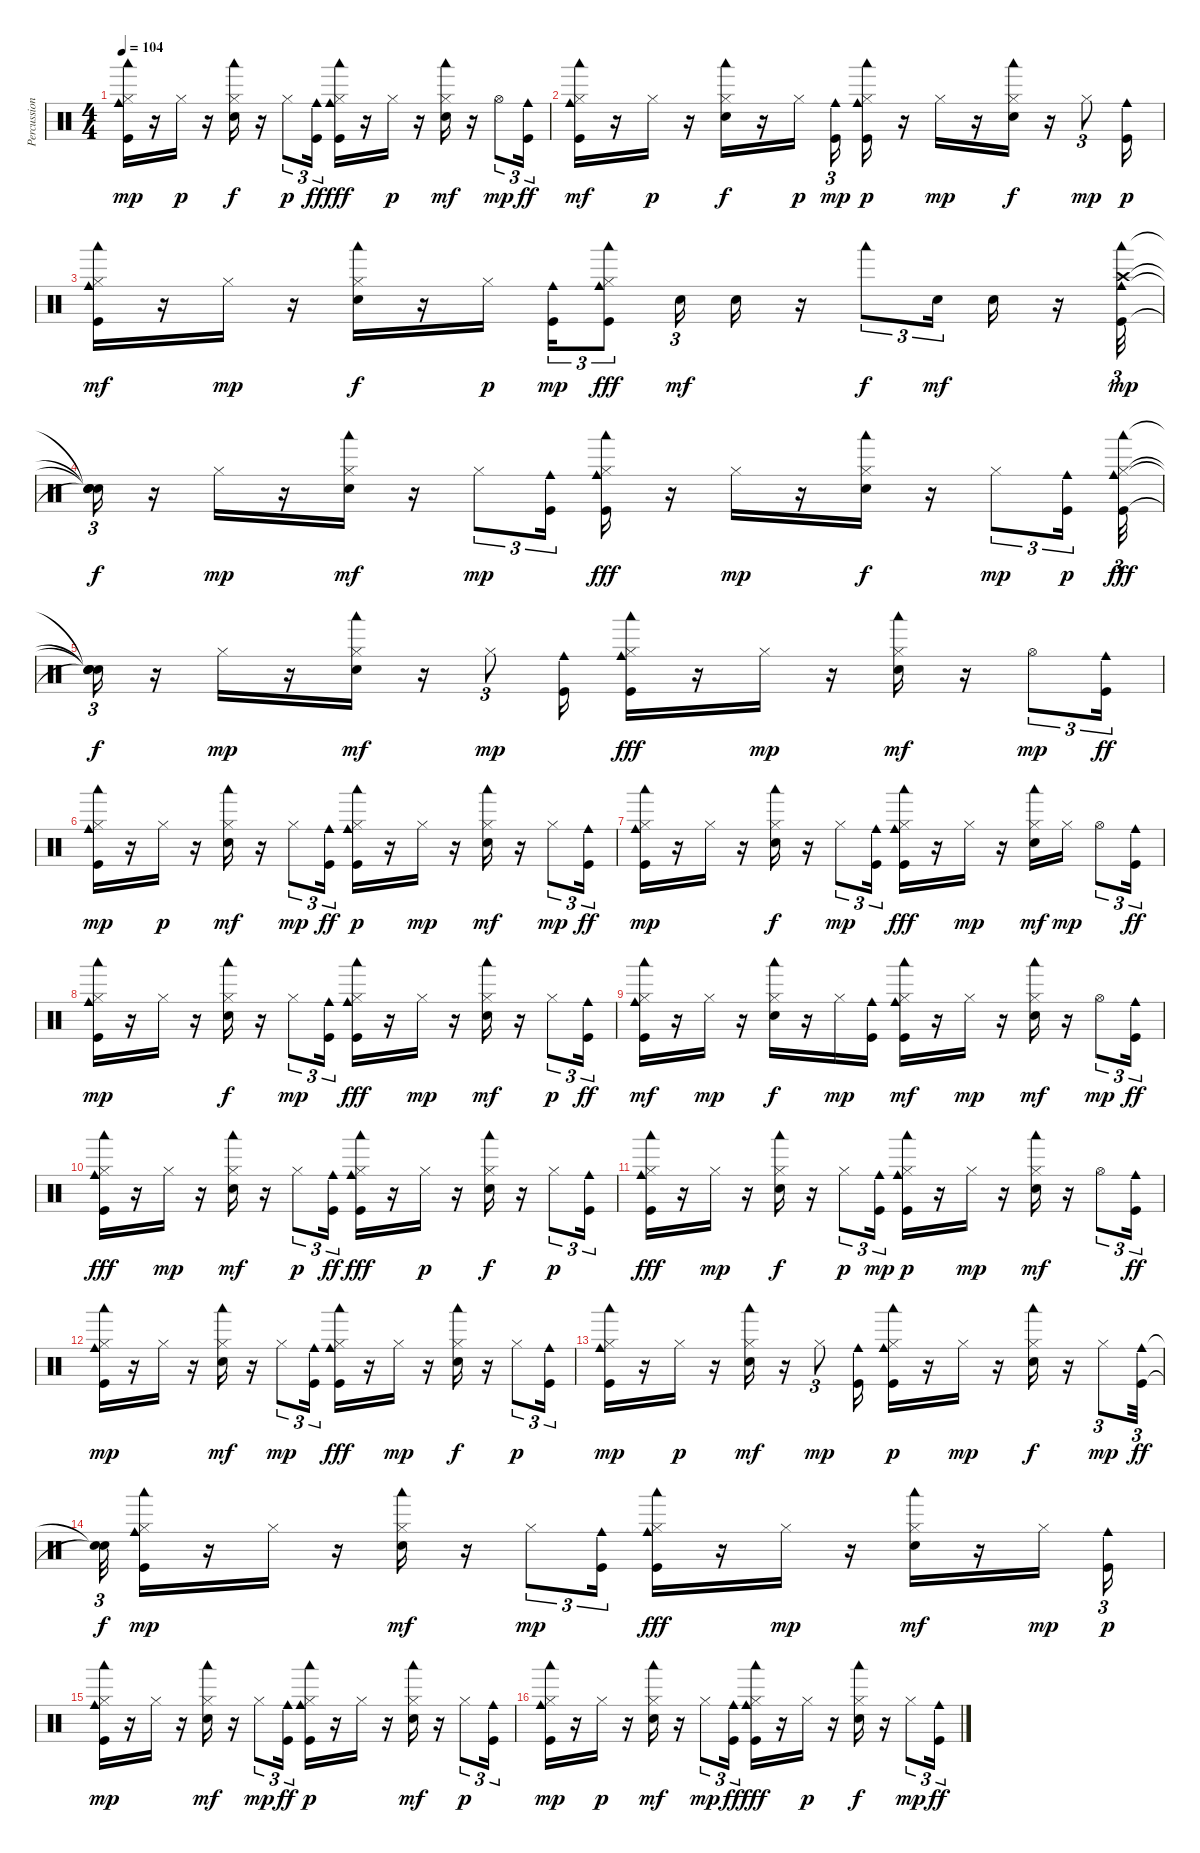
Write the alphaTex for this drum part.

\track ("Percussions (drums + hihats)" "Percussion") {instrument percussion}
\staff {score}
\articulation defaults
\ts (4 4)
\tempo 104
\clef neutral
\ks c
("Hi-Hat (closed)" "Woodblock low (hit)" "Kick (hit)" "Cowbell medium (hit)").16{dy mp} r.16 "Hi-Hat (closed)".16{dy p} r.16 ("Woodblock low (hit)" "Hi-Hat (closed)" "Electric Snare (hit)").16{dy f} r.16 "Hi-Hat (closed)".8{tu (3 2) dy p} ("Cowbell medium (hit)" "Kick (hit)").16{tu (3 2) dy ff} ("Hi-Hat (closed)" "Cowbell medium (hit)" "Kick (hit)" "Woodblock low (hit)").16{dy fff} r.16 "Hi-Hat (closed)".16{dy p} r.16 ("Woodblock low (hit)" "Electric Snare (hit)" "Hi-Hat (closed)").16{dy mf} r.16 "Hi-Hat (open)".8{tu (3 2) dy mp} ("Cowbell medium (hit)" "Kick (hit)").16{tu (3 2) dy ff} |
("Cowbell medium (hit)" "Woodblock low (hit)" "Kick (hit)" "Hi-Hat (closed)").16{dy mf} r.16 "Hi-Hat (closed)".16{dy p} r.16 ("Electric Snare (hit)" "Woodblock low (hit)" "Hi-Hat (closed)").16{dy f} r.16 "Hi-Hat (closed)".16{dy p} ("Kick (hit)" "Cowbell medium (hit)").16{tu (3 2) dy mp} ("Kick (hit)" "Hi-Hat (closed)" "Woodblock low (hit)" "Cowbell medium (hit)").16{dy p} r.16 "Hi-Hat (closed)".16{dy mp} r.16 ("Electric Snare (hit)" "Hi-Hat (closed)" "Woodblock low (hit)").16{dy f} r.16 "Hi-Hat (closed)".8{tu (3 2) dy mp} ("Kick (hit)" "Cowbell medium (hit)").16{dy p} |
("Kick (hit)" "Cowbell medium (hit)" "Woodblock low (hit)" "Hi-Hat (closed)").16{dy mf} r.16 "Hi-Hat (closed)".16{dy mp} r.16 ("Woodblock low (hit)" "Electric Snare (hit)" "Hi-Hat (closed)").16{dy f} r.16 "Hi-Hat (closed)".16{dy p} ("Kick (hit)" "Cowbell medium (hit)").16{tu (3 2) dy mp} ("Cowbell medium (hit)" "Kick (hit)" "Woodblock low (hit)" "Hi-Hat (closed)").8{tu (3 2) dy fff} "Electric Snare (hit)".16{tu (3 2) dy mf} "Electric Snare (hit)".16 r.16 "Woodblock low (hit)".8{tu (3 2) dy f} "Electric Snare (hit)".16{tu (3 2) dy mf} "Electric Snare (hit)".16 r.16 ("Kick (hit)" "Crash high (hit)" "Cowbell medium (hit)" "Woodblock low (hit)").32{tu (3 2) dy mp} |
("Snare (hit)"{t} "Snare (hit)"{t} "Snare (hit)"{t} "Snare (hit)"{t}).16{tu (3 2) dy f} r.16 "Hi-Hat (closed)".16{dy mp} r.16 ("Hi-Hat (closed)" "Electric Snare (hit)" "Woodblock low (hit)").16{dy mf} r.16 "Hi-Hat (closed)".8{tu (3 2) dy mp} ("Kick (hit)" "Cowbell medium (hit)").16{tu (3 2)} ("Cowbell medium (hit)" "Hi-Hat (closed)" "Kick (hit)" "Woodblock low (hit)").16{dy fff} r.16 "Hi-Hat (closed)".16{dy mp} r.16 ("Hi-Hat (closed)" "Electric Snare (hit)" "Woodblock low (hit)").16{dy f} r.16 "Hi-Hat (closed)".8{tu (3 2) dy mp} ("Kick (hit)" "Cowbell medium (hit)").16{tu (3 2) dy p} ("Cowbell medium (hit)" "Woodblock low (hit)" "Hi-Hat (closed)" "Kick (hit)").32{tu (3 2) dy fff} |
("Snare (hit)"{t} "Snare (hit)"{t} "Snare (hit)"{t} "Snare (hit)"{t}).16{tu (3 2) dy f} r.16 "Hi-Hat (closed)".16{dy mp} r.16 ("Woodblock low (hit)" "Hi-Hat (closed)" "Electric Snare (hit)").16{dy mf} r.16 "Hi-Hat (closed)".8{tu (3 2) dy mp} ("Kick (hit)" "Cowbell medium (hit)").16 ("Woodblock low (hit)" "Hi-Hat (closed)" "Cowbell medium (hit)" "Kick (hit)").16{dy fff} r.16 "Hi-Hat (closed)".16{dy mp} r.16 ("Electric Snare (hit)" "Woodblock low (hit)" "Hi-Hat (closed)").16{dy mf} r.16 "Hi-Hat (open)".8{tu (3 2) dy mp} ("Cowbell medium (hit)" "Kick (hit)").16{tu (3 2) dy ff} |
("Hi-Hat (closed)" "Kick (hit)" "Cowbell medium (hit)" "Woodblock low (hit)").16{dy mp} r.16 "Hi-Hat (closed)".16{dy p} r.16 ("Electric Snare (hit)" "Hi-Hat (closed)" "Woodblock low (hit)").16{dy mf} r.16 "Hi-Hat (closed)".8{tu (3 2) dy mp} ("Cowbell medium (hit)" "Kick (hit)").16{tu (3 2) dy ff} ("Hi-Hat (closed)" "Woodblock low (hit)" "Kick (hit)" "Cowbell medium (hit)").16{dy p} r.16 "Hi-Hat (closed)".16{dy mp} r.16 ("Woodblock low (hit)" "Hi-Hat (closed)" "Electric Snare (hit)").16{dy mf} r.16 "Hi-Hat (closed)".8{tu (3 2) dy mp} ("Cowbell medium (hit)" "Kick (hit)").16{tu (3 2) dy ff} |
("Woodblock low (hit)" "Hi-Hat (closed)" "Kick (hit)" "Cowbell medium (hit)").16{dy mp} r.16 "Hi-Hat (closed)".16 r.16 ("Electric Snare (hit)" "Hi-Hat (closed)" "Woodblock low (hit)").16{dy f} r.16 "Hi-Hat (closed)".8{tu (3 2) dy mp} ("Kick (hit)" "Cowbell medium (hit)").16{tu (3 2)} ("Hi-Hat (closed)" "Cowbell medium (hit)" "Woodblock low (hit)" "Kick (hit)").16{dy fff} r.16 "Hi-Hat (closed)".16{dy mp} r.16 ("Electric Snare (hit)" "Woodblock low (hit)" "Hi-Hat (closed)").16{dy mf} "Hi-Hat (closed)".16{dy mp} "Hi-Hat (open)".8{tu (3 2)} ("Cowbell medium (hit)" "Kick (hit)").16{tu (3 2) dy ff} |
("Woodblock low (hit)" "Kick (hit)" "Hi-Hat (closed)" "Cowbell medium (hit)").16{dy mp} r.16 "Hi-Hat (closed)".16 r.16 ("Electric Snare (hit)" "Woodblock low (hit)" "Hi-Hat (closed)").16{dy f} r.16 "Hi-Hat (closed)".8{tu (3 2) dy mp} ("Kick (hit)" "Cowbell medium (hit)").16{tu (3 2)} ("Cowbell medium (hit)" "Hi-Hat (closed)" "Kick (hit)" "Woodblock low (hit)").16{dy fff} r.16 "Hi-Hat (closed)".16{dy mp} r.16 ("Hi-Hat (closed)" "Woodblock low (hit)" "Electric Snare (hit)").16{dy mf} r.16 "Hi-Hat (closed)".8{tu (3 2) dy p} ("Cowbell medium (hit)" "Kick (hit)").16{tu (3 2) dy ff} |
("Cowbell medium (hit)" "Woodblock low (hit)" "Kick (hit)" "Hi-Hat (closed)").16{dy mf} r.16 "Hi-Hat (closed)".16{dy mp} r.16 ("Electric Snare (hit)" "Woodblock low (hit)" "Hi-Hat (closed)").16{dy f} r.16 "Hi-Hat (closed)".16{dy mp} ("Kick (hit)" "Cowbell medium (hit)").16 ("Cowbell medium (hit)" "Kick (hit)" "Woodblock low (hit)" "Hi-Hat (closed)").16{dy mf} r.16 "Hi-Hat (closed)".16{dy mp} r.16 ("Woodblock low (hit)" "Electric Snare (hit)" "Hi-Hat (closed)").16{dy mf} r.16 "Hi-Hat (open)".8{tu (3 2) dy mp} ("Cowbell medium (hit)" "Kick (hit)").16{tu (3 2) dy ff} |
("Hi-Hat (closed)" "Woodblock low (hit)" "Cowbell medium (hit)" "Kick (hit)").16{dy fff} r.16 "Hi-Hat (closed)".16{dy mp} r.16 ("Electric Snare (hit)" "Hi-Hat (closed)" "Woodblock low (hit)").16{dy mf} r.16 "Hi-Hat (closed)".8{tu (3 2) dy p} ("Cowbell medium (hit)" "Kick (hit)").16{tu (3 2) dy ff} ("Hi-Hat (closed)" "Woodblock low (hit)" "Cowbell medium (hit)" "Kick (hit)").16{dy fff} r.16 "Hi-Hat (closed)".16{dy p} r.16 ("Hi-Hat (closed)" "Woodblock low (hit)" "Electric Snare (hit)").16{dy f} r.16 "Hi-Hat (closed)".8{tu (3 2) dy p} ("Kick (hit)" "Cowbell medium (hit)").16{tu (3 2)} |
("Cowbell medium (hit)" "Hi-Hat (closed)" "Kick (hit)" "Woodblock low (hit)").16{dy fff} r.16 "Hi-Hat (closed)".16{dy mp} r.16 ("Woodblock low (hit)" "Electric Snare (hit)" "Hi-Hat (closed)").16{dy f} r.16 "Hi-Hat (closed)".8{tu (3 2) dy p} ("Kick (hit)" "Cowbell medium (hit)").16{tu (3 2) dy mp} ("Woodblock low (hit)" "Kick (hit)" "Hi-Hat (closed)" "Cowbell medium (hit)").16{dy p} r.16 "Hi-Hat (closed)".16{dy mp} r.16 ("Electric Snare (hit)" "Woodblock low (hit)" "Hi-Hat (closed)").16{dy mf} r.16 "Hi-Hat (open)".8{tu (3 2)} ("Cowbell medium (hit)" "Kick (hit)").16{tu (3 2) dy ff} |
("Hi-Hat (closed)" "Kick (hit)" "Cowbell medium (hit)" "Woodblock low (hit)").16{dy mp} r.16 "Hi-Hat (closed)".16 r.16 ("Electric Snare (hit)" "Woodblock low (hit)" "Hi-Hat (closed)").16{dy mf} r.16 "Hi-Hat (closed)".8{tu (3 2) dy mp} ("Kick (hit)" "Cowbell medium (hit)").16{tu (3 2)} ("Cowbell medium (hit)" "Hi-Hat (closed)" "Kick (hit)" "Woodblock low (hit)").16{dy fff} r.16 "Hi-Hat (closed)".16{dy mp} r.16 ("Electric Snare (hit)" "Hi-Hat (closed)" "Woodblock low (hit)").16{dy f} r.16 "Hi-Hat (closed)".8{tu (3 2) dy p} ("Kick (hit)" "Cowbell medium (hit)").16{tu (3 2)} |
("Woodblock low (hit)" "Kick (hit)" "Hi-Hat (closed)" "Cowbell medium (hit)").16{dy mp} r.16 "Hi-Hat (closed)".16{dy p} r.16 ("Hi-Hat (closed)" "Electric Snare (hit)" "Woodblock low (hit)").16{dy mf} r.16 "Hi-Hat (closed)".8{tu (3 2) dy mp} ("Kick (hit)" "Cowbell medium (hit)").16 ("Hi-Hat (closed)" "Kick (hit)" "Cowbell medium (hit)" "Woodblock low (hit)").16{dy p} r.16 "Hi-Hat (closed)".16{dy mp} r.16 ("Woodblock low (hit)" "Hi-Hat (closed)" "Electric Snare (hit)").16{dy f} r.16 "Hi-Hat (closed)".8{tu (3 2) dy mp} ("Cowbell medium (hit)" "Kick (hit)").32{tu (3 2) dy ff} |
("Snare (hit)"{t} "Snare (hit)"{t}).32{tu (3 2) dy f} ("Woodblock low (hit)" "Kick (hit)" "Hi-Hat (closed)" "Cowbell medium (hit)").16{dy mp} r.16 "Hi-Hat (closed)".16 r.16 ("Electric Snare (hit)" "Woodblock low (hit)" "Hi-Hat (closed)").16{dy mf} r.16 "Hi-Hat (closed)".8{tu (3 2) dy mp} ("Kick (hit)" "Cowbell medium (hit)").16{tu (3 2)} ("Cowbell medium (hit)" "Hi-Hat (closed)" "Kick (hit)" "Woodblock low (hit)").16{dy fff} r.16 "Hi-Hat (closed)".16{dy mp} r.16 ("Woodblock low (hit)" "Electric Snare (hit)" "Hi-Hat (closed)").16{dy mf} r.16 "Hi-Hat (closed)".16{dy mp} ("Kick (hit)" "Cowbell medium (hit)").16{tu (3 2) dy p} |
("Hi-Hat (closed)" "Kick (hit)" "Woodblock low (hit)" "Cowbell medium (hit)").16{dy mp} r.16 "Hi-Hat (closed)".16 r.16 ("Hi-Hat (closed)" "Electric Snare (hit)" "Woodblock low (hit)").16{dy mf} r.16 "Hi-Hat (closed)".8{tu (3 2) dy mp} ("Cowbell medium (hit)" "Kick (hit)").16{tu (3 2) dy ff} ("Kick (hit)" "Woodblock low (hit)" "Hi-Hat (closed)" "Cowbell medium (hit)").16{dy p} r.16 "Hi-Hat (closed)".16 r.16 ("Electric Snare (hit)" "Woodblock low (hit)" "Hi-Hat (closed)").16{dy mf} r.16 "Hi-Hat (closed)".8{tu (3 2) dy p} ("Kick (hit)" "Cowbell medium (hit)").16{tu (3 2)} |
("Hi-Hat (closed)" "Kick (hit)" "Cowbell medium (hit)" "Woodblock low (hit)").16{dy mp} r.16 "Hi-Hat (closed)".16{dy p} r.16 ("Electric Snare (hit)" "Hi-Hat (closed)" "Woodblock low (hit)").16{dy mf} r.16 "Hi-Hat (closed)".8{tu (3 2) dy mp} ("Cowbell medium (hit)" "Kick (hit)").16{tu (3 2) dy ff} ("Hi-Hat (closed)" "Cowbell medium (hit)" "Woodblock low (hit)" "Kick (hit)").16{dy fff} r.16 "Hi-Hat (closed)".16{dy p} r.16 ("Electric Snare (hit)" "Hi-Hat (closed)" "Woodblock low (hit)").16{dy f} r.16 "Hi-Hat (closed)".8{tu (3 2) dy mp} ("Cowbell medium (hit)" "Kick (hit)").16{tu (3 2) dy ff}
